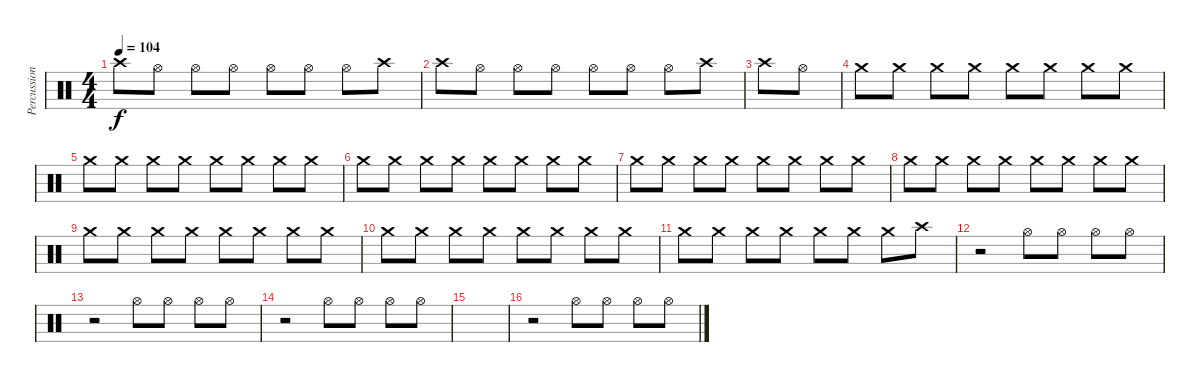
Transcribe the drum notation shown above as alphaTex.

\track ("Percussion" "Percussion") {instrument percussion}
\staff {score}
\articulation defaults
\ts (4 4)
\tempo 104
\clef neutral
\ks c "Crash high (hit)".8{dy f} "Hi-Hat (open)".8 "Hi-Hat (open)".8 "Hi-Hat (open)".8 "Hi-Hat (open)".8 "Hi-Hat (open)".8 "Hi-Hat (open)".8 "Crash high (hit)".8
|
"Crash high (hit)".8 "Hi-Hat (open)".8 "Hi-Hat (open)".8 "Hi-Hat (open)".8 "Hi-Hat (open)".8 "Hi-Hat (open)".8 "Hi-Hat (open)".8 "Crash high (hit)".8 |
"Crash high (hit)".8 "Hi-Hat (open)".8 |
"Crash medium (hit)".8 "Crash medium (hit)".8 "Crash medium (hit)".8 "Crash medium (hit)".8 "Crash medium (hit)".8 "Crash medium (hit)".8 "Crash medium (hit)".8 "Crash medium (hit)".8 |
"Crash medium (hit)".8 "Crash medium (hit)".8 "Crash medium (hit)".8 "Crash medium (hit)".8 "Crash medium (hit)".8 "Crash medium (hit)".8 "Crash medium (hit)".8 "Crash medium (hit)".8 |
"Crash medium (hit)".8 "Crash medium (hit)".8 "Crash medium (hit)".8 "Crash medium (hit)".8 "Crash medium (hit)".8 "Crash medium (hit)".8 "Crash medium (hit)".8 "Crash medium (hit)".8 |
"Crash medium (hit)".8 "Crash medium (hit)".8 "Crash medium (hit)".8 "Crash medium (hit)".8 "Crash medium (hit)".8 "Crash medium (hit)".8 "Crash medium (hit)".8 "Crash medium (hit)".8 |
"Crash medium (hit)".8 "Crash medium (hit)".8 "Crash medium (hit)".8 "Crash medium (hit)".8 "Crash medium (hit)".8 "Crash medium (hit)".8 "Crash medium (hit)".8 "Crash medium (hit)".8 |
"Crash medium (hit)".8 "Crash medium (hit)".8 "Crash medium (hit)".8 "Crash medium (hit)".8 "Crash medium (hit)".8 "Crash medium (hit)".8 "Crash medium (hit)".8 "Crash medium (hit)".8 |
"Crash medium (hit)".8 "Crash medium (hit)".8 "Crash medium (hit)".8 "Crash medium (hit)".8 "Crash medium (hit)".8 "Crash medium (hit)".8 "Crash medium (hit)".8 "Crash medium (hit)".8 |
"Crash medium (hit)".8 "Crash medium (hit)".8 "Crash medium (hit)".8 "Crash medium (hit)".8 "Crash medium (hit)".8 "Crash medium (hit)".8 "Crash medium (hit)".8 "Crash high (hit)".8 |
r.2 "Hi-Hat (open)".8 "Hi-Hat (open)".8 "Hi-Hat (open)".8 "Hi-Hat (open)".8 |
r.2 "Hi-Hat (open)".8 "Hi-Hat (open)".8 "Hi-Hat (open)".8 "Hi-Hat (open)".8 |
r.2 "Hi-Hat (open)".8 "Hi-Hat (open)".8 "Hi-Hat (open)".8 "Hi-Hat (open)".8 |
|
r.2 "Hi-Hat (open)".8 "Hi-Hat (open)".8 "Hi-Hat (open)".8 "Hi-Hat (open)".8
